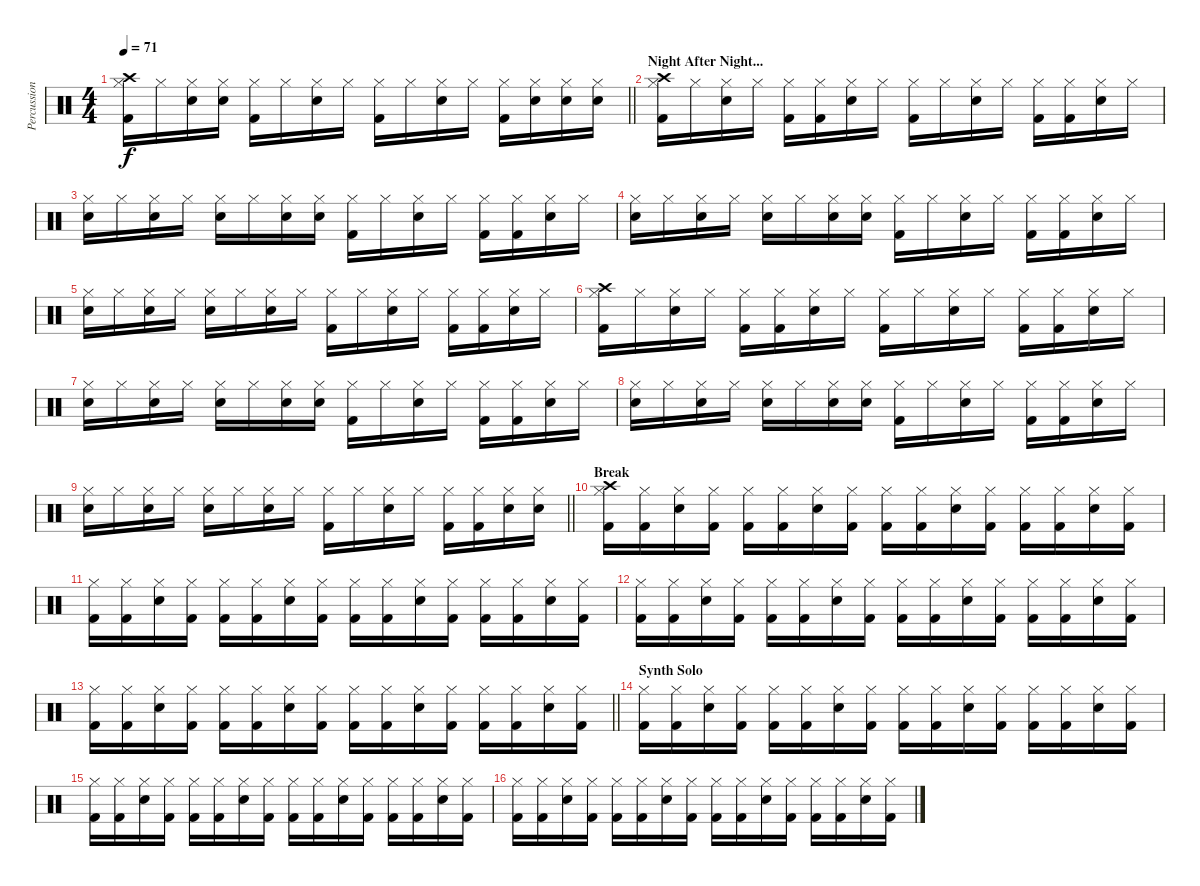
\track ("Percussion" "Percussion") {instrument percussion}
\staff {score}
\articulation defaults
\ts (4 4)
\tempo 71
\clef neutral
\barLineRight lightlight
\ks c
("Crash high (hit)" "Hi-Hat (closed)" "Kick (hit) 2").16{dy f} "Hi-Hat (closed)".16 ("Hi-Hat (closed)" "Snare (hit) 2").16 ("Hi-Hat (closed)" "Snare (hit) 2").16 ("Hi-Hat (closed)" "Kick (hit) 2").16 "Hi-Hat (closed)".16 ("Hi-Hat (closed)" "Snare (hit) 2").16 "Hi-Hat (closed)".16 ("Hi-Hat (closed)" "Kick (hit) 2").16 "Hi-Hat (closed)".16 ("Hi-Hat (closed)" "Snare (hit) 2").16 "Hi-Hat (closed)".16 ("Hi-Hat (closed)" "Kick (hit) 2").16 ("Hi-Hat (closed)" "Snare (hit) 2").16 ("Hi-Hat (closed)" "Snare (hit) 2").16 ("Hi-Hat (closed)" "Snare (hit) 2").16 |
\section ("" "Night After Night...")
("Crash high (hit)" "Hi-Hat (closed)" "Kick (hit) 2").16 "Hi-Hat (closed)".16 ("Hi-Hat (closed)" "Snare (hit) 2").16 "Hi-Hat (closed)".16 ("Hi-Hat (closed)" "Kick (hit) 2").16 ("Hi-Hat (closed)" "Kick (hit) 2").16 ("Hi-Hat (closed)" "Snare (hit) 2").16 "Hi-Hat (closed)".16 ("Hi-Hat (closed)" "Kick (hit) 2").16 "Hi-Hat (closed)".16 ("Hi-Hat (closed)" "Snare (hit) 2").16 "Hi-Hat (closed)".16 ("Hi-Hat (closed)" "Kick (hit) 2").16 ("Hi-Hat (closed)" "Kick (hit) 2").16 ("Hi-Hat (closed)" "Snare (hit) 2").16 "Hi-Hat (closed)".16 |
("Hi-Hat (closed)" "Snare (hit) 2").16 "Hi-Hat (closed)".16 ("Hi-Hat (closed)" "Snare (hit) 2").16 "Hi-Hat (closed)".16 ("Hi-Hat (closed)" "Snare (hit) 2").16 "Hi-Hat (closed)".16 ("Hi-Hat (closed)" "Snare (hit) 2").16 ("Hi-Hat (closed)" "Snare (hit) 2").16 ("Hi-Hat (closed)" "Kick (hit) 2").16 "Hi-Hat (closed)".16 ("Hi-Hat (closed)" "Snare (hit) 2").16 "Hi-Hat (closed)".16 ("Hi-Hat (closed)" "Kick (hit) 2").16 ("Hi-Hat (closed)" "Kick (hit) 2").16 ("Hi-Hat (closed)" "Snare (hit) 2").16 "Hi-Hat (closed)".16 |
("Hi-Hat (closed)" "Snare (hit) 2").16 "Hi-Hat (closed)".16 ("Hi-Hat (closed)" "Snare (hit) 2").16 "Hi-Hat (closed)".16 ("Hi-Hat (closed)" "Snare (hit) 2").16 "Hi-Hat (closed)".16 ("Hi-Hat (closed)" "Snare (hit) 2").16 ("Hi-Hat (closed)" "Snare (hit) 2").16 ("Hi-Hat (closed)" "Kick (hit) 2").16 "Hi-Hat (closed)".16 ("Hi-Hat (closed)" "Snare (hit) 2").16 "Hi-Hat (closed)".16 ("Hi-Hat (closed)" "Kick (hit) 2").16 ("Hi-Hat (closed)" "Kick (hit) 2").16 ("Hi-Hat (closed)" "Snare (hit) 2").16 "Hi-Hat (closed)".16 |
("Hi-Hat (closed)" "Snare (hit) 2").16 "Hi-Hat (closed)".16 ("Hi-Hat (closed)" "Snare (hit) 2").16 "Hi-Hat (closed)".16 ("Hi-Hat (closed)" "Snare (hit) 2").16 "Hi-Hat (closed)".16 ("Hi-Hat (closed)" "Snare (hit) 2").16 "Hi-Hat (closed)".16 ("Hi-Hat (closed)" "Kick (hit) 2").16 "Hi-Hat (closed)".16 ("Hi-Hat (closed)" "Snare (hit) 2").16 "Hi-Hat (closed)".16 ("Hi-Hat (closed)" "Kick (hit) 2").16 ("Hi-Hat (closed)" "Kick (hit) 2").16 ("Hi-Hat (closed)" "Snare (hit) 2").16 "Hi-Hat (closed)".16 |
("Crash high (hit)" "Hi-Hat (closed)" "Kick (hit) 2").16 "Hi-Hat (closed)".16 ("Hi-Hat (closed)" "Snare (hit) 2").16 "Hi-Hat (closed)".16 ("Hi-Hat (closed)" "Kick (hit) 2").16 ("Hi-Hat (closed)" "Kick (hit) 2").16 ("Hi-Hat (closed)" "Snare (hit) 2").16 "Hi-Hat (closed)".16 ("Hi-Hat (closed)" "Kick (hit) 2").16 "Hi-Hat (closed)".16 ("Hi-Hat (closed)" "Snare (hit) 2").16 "Hi-Hat (closed)".16 ("Hi-Hat (closed)" "Kick (hit) 2").16 ("Hi-Hat (closed)" "Kick (hit) 2").16 ("Hi-Hat (closed)" "Snare (hit) 2").16 "Hi-Hat (closed)".16 |
("Hi-Hat (closed)" "Snare (hit) 2").16 "Hi-Hat (closed)".16 ("Hi-Hat (closed)" "Snare (hit) 2").16 "Hi-Hat (closed)".16 ("Hi-Hat (closed)" "Snare (hit) 2").16 "Hi-Hat (closed)".16 ("Hi-Hat (closed)" "Snare (hit) 2").16 ("Hi-Hat (closed)" "Snare (hit) 2").16 ("Hi-Hat (closed)" "Kick (hit) 2").16 "Hi-Hat (closed)".16 ("Hi-Hat (closed)" "Snare (hit) 2").16 "Hi-Hat (closed)".16 ("Hi-Hat (closed)" "Kick (hit) 2").16 ("Hi-Hat (closed)" "Kick (hit) 2").16 ("Hi-Hat (closed)" "Snare (hit) 2").16 "Hi-Hat (closed)".16 |
("Hi-Hat (closed)" "Snare (hit) 2").16 "Hi-Hat (closed)".16 ("Hi-Hat (closed)" "Snare (hit) 2").16 "Hi-Hat (closed)".16 ("Hi-Hat (closed)" "Snare (hit) 2").16 "Hi-Hat (closed)".16 ("Hi-Hat (closed)" "Snare (hit) 2").16 ("Hi-Hat (closed)" "Snare (hit) 2").16 ("Hi-Hat (closed)" "Kick (hit) 2").16 "Hi-Hat (closed)".16 ("Hi-Hat (closed)" "Snare (hit) 2").16 "Hi-Hat (closed)".16 ("Hi-Hat (closed)" "Kick (hit) 2").16 ("Hi-Hat (closed)" "Kick (hit) 2").16 ("Hi-Hat (closed)" "Snare (hit) 2").16 "Hi-Hat (closed)".16 |
\barLineRight lightlight
("Hi-Hat (closed)" "Snare (hit) 2").16 "Hi-Hat (closed)".16 ("Hi-Hat (closed)" "Snare (hit) 2").16 "Hi-Hat (closed)".16 ("Hi-Hat (closed)" "Snare (hit) 2").16 "Hi-Hat (closed)".16 ("Hi-Hat (closed)" "Snare (hit) 2").16 "Hi-Hat (closed)".16 ("Hi-Hat (closed)" "Kick (hit) 2").16 "Hi-Hat (closed)".16 ("Hi-Hat (closed)" "Snare (hit) 2").16 "Hi-Hat (closed)".16 ("Hi-Hat (closed)" "Kick (hit) 2").16 ("Hi-Hat (closed)" "Kick (hit) 2").16 ("Hi-Hat (closed)" "Snare (hit) 2").16 ("Hi-Hat (closed)" "Snare (hit) 2").16 |
\section ("" "Break")
("Crash high (hit)" "Hi-Hat (closed)" "Kick (hit) 2").16 ("Hi-Hat (closed)" "Kick (hit) 2").16 ("Hi-Hat (closed)" "Snare (hit) 2").16 ("Hi-Hat (closed)" "Kick (hit) 2").16 ("Hi-Hat (closed)" "Kick (hit) 2").16 ("Hi-Hat (closed)" "Kick (hit) 2").16 ("Hi-Hat (closed)" "Snare (hit) 2").16 ("Hi-Hat (closed)" "Kick (hit) 2").16 ("Hi-Hat (closed)" "Kick (hit) 2").16 ("Hi-Hat (closed)" "Kick (hit) 2").16 ("Hi-Hat (closed)" "Snare (hit) 2").16 ("Hi-Hat (closed)" "Kick (hit) 2").16 ("Hi-Hat (closed)" "Kick (hit) 2").16 ("Hi-Hat (closed)" "Kick (hit) 2").16 ("Hi-Hat (closed)" "Snare (hit) 2").16 ("Hi-Hat (closed)" "Kick (hit) 2").16 |
("Hi-Hat (closed)" "Kick (hit) 2").16 ("Hi-Hat (closed)" "Kick (hit) 2").16 ("Hi-Hat (closed)" "Snare (hit) 2").16 ("Hi-Hat (closed)" "Kick (hit) 2").16 ("Hi-Hat (closed)" "Kick (hit) 2").16 ("Hi-Hat (closed)" "Kick (hit) 2").16 ("Hi-Hat (closed)" "Snare (hit) 2").16 ("Hi-Hat (closed)" "Kick (hit) 2").16 ("Hi-Hat (closed)" "Kick (hit) 2").16 ("Hi-Hat (closed)" "Kick (hit) 2").16 ("Hi-Hat (closed)" "Snare (hit) 2").16 ("Hi-Hat (closed)" "Kick (hit) 2").16 ("Hi-Hat (closed)" "Kick (hit) 2").16 ("Hi-Hat (closed)" "Kick (hit) 2").16 ("Hi-Hat (closed)" "Snare (hit) 2").16 ("Hi-Hat (closed)" "Kick (hit) 2").16 |
("Hi-Hat (closed)" "Kick (hit) 2").16 ("Hi-Hat (closed)" "Kick (hit) 2").16 ("Hi-Hat (closed)" "Snare (hit) 2").16 ("Hi-Hat (closed)" "Kick (hit) 2").16 ("Hi-Hat (closed)" "Kick (hit) 2").16 ("Hi-Hat (closed)" "Kick (hit) 2").16 ("Hi-Hat (closed)" "Snare (hit) 2").16 ("Hi-Hat (closed)" "Kick (hit) 2").16 ("Hi-Hat (closed)" "Kick (hit) 2").16 ("Hi-Hat (closed)" "Kick (hit) 2").16 ("Hi-Hat (closed)" "Snare (hit) 2").16 ("Hi-Hat (closed)" "Kick (hit) 2").16 ("Hi-Hat (closed)" "Kick (hit) 2").16 ("Hi-Hat (closed)" "Kick (hit) 2").16 ("Hi-Hat (closed)" "Snare (hit) 2").16 ("Hi-Hat (closed)" "Kick (hit) 2").16 |
\barLineRight lightlight
("Hi-Hat (closed)" "Kick (hit) 2").16 ("Hi-Hat (closed)" "Kick (hit) 2").16 ("Hi-Hat (closed)" "Snare (hit) 2").16 ("Hi-Hat (closed)" "Kick (hit) 2").16 ("Hi-Hat (closed)" "Kick (hit) 2").16 ("Hi-Hat (closed)" "Kick (hit) 2").16 ("Hi-Hat (closed)" "Snare (hit) 2").16 ("Hi-Hat (closed)" "Kick (hit) 2").16 ("Hi-Hat (closed)" "Kick (hit) 2").16 ("Hi-Hat (closed)" "Kick (hit) 2").16 ("Hi-Hat (closed)" "Snare (hit) 2").16 ("Hi-Hat (closed)" "Kick (hit) 2").16 ("Hi-Hat (closed)" "Kick (hit) 2").16 ("Hi-Hat (closed)" "Kick (hit) 2").16 ("Hi-Hat (closed)" "Snare (hit) 2").16 ("Hi-Hat (closed)" "Kick (hit) 2").16 |
\section ("" "Synth Solo")
("Hi-Hat (closed)" "Kick (hit) 2").16 ("Hi-Hat (closed)" "Kick (hit) 2").16 ("Hi-Hat (closed)" "Snare (hit) 2").16 ("Hi-Hat (closed)" "Kick (hit) 2").16 ("Hi-Hat (closed)" "Kick (hit) 2").16 ("Hi-Hat (closed)" "Kick (hit) 2").16 ("Hi-Hat (closed)" "Snare (hit) 2").16 ("Hi-Hat (closed)" "Kick (hit) 2").16 ("Hi-Hat (closed)" "Kick (hit) 2").16 ("Hi-Hat (closed)" "Kick (hit) 2").16 ("Hi-Hat (closed)" "Snare (hit) 2").16 ("Hi-Hat (closed)" "Kick (hit) 2").16 ("Hi-Hat (closed)" "Kick (hit) 2").16 ("Hi-Hat (closed)" "Kick (hit) 2").16 ("Hi-Hat (closed)" "Snare (hit) 2").16 ("Hi-Hat (closed)" "Kick (hit) 2").16 |
("Hi-Hat (closed)" "Kick (hit) 2").16 ("Hi-Hat (closed)" "Kick (hit) 2").16 ("Hi-Hat (closed)" "Snare (hit) 2").16 ("Hi-Hat (closed)" "Kick (hit) 2").16 ("Hi-Hat (closed)" "Kick (hit) 2").16 ("Hi-Hat (closed)" "Kick (hit) 2").16 ("Hi-Hat (closed)" "Snare (hit) 2").16 ("Hi-Hat (closed)" "Kick (hit) 2").16 ("Hi-Hat (closed)" "Kick (hit) 2").16 ("Hi-Hat (closed)" "Kick (hit) 2").16 ("Hi-Hat (closed)" "Snare (hit) 2").16 ("Hi-Hat (closed)" "Kick (hit) 2").16 ("Hi-Hat (closed)" "Kick (hit) 2").16 ("Hi-Hat (closed)" "Kick (hit) 2").16 ("Hi-Hat (closed)" "Snare (hit) 2").16 ("Hi-Hat (closed)" "Kick (hit) 2").16 |
("Hi-Hat (closed)" "Kick (hit) 2").16 ("Hi-Hat (closed)" "Kick (hit) 2").16 ("Hi-Hat (closed)" "Snare (hit) 2").16 ("Hi-Hat (closed)" "Kick (hit) 2").16 ("Hi-Hat (closed)" "Kick (hit) 2").16 ("Hi-Hat (closed)" "Kick (hit) 2").16 ("Hi-Hat (closed)" "Snare (hit) 2").16 ("Hi-Hat (closed)" "Kick (hit) 2").16 ("Hi-Hat (closed)" "Kick (hit) 2").16 ("Hi-Hat (closed)" "Kick (hit) 2").16 ("Hi-Hat (closed)" "Snare (hit) 2").16 ("Hi-Hat (closed)" "Kick (hit) 2").16 ("Hi-Hat (closed)" "Kick (hit) 2").16 ("Hi-Hat (closed)" "Kick (hit) 2").16 ("Hi-Hat (closed)" "Snare (hit) 2").16 ("Hi-Hat (closed)" "Kick (hit) 2").16
